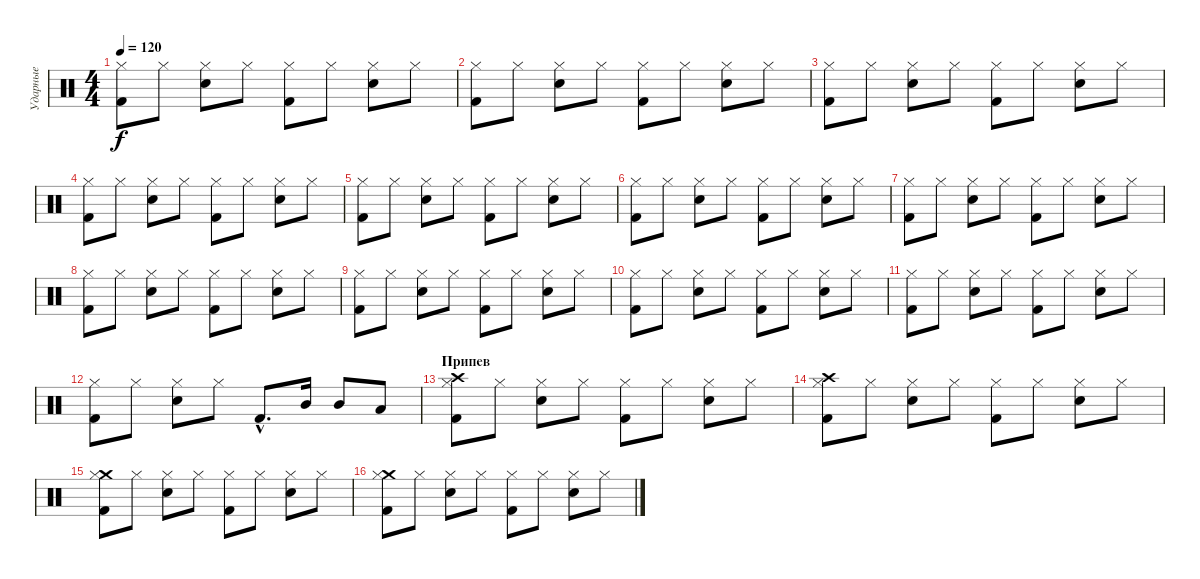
\track ("Ударные" "Ударные") {instrument percussion}
\staff {score}
\articulation defaults
\ts (4 4)
\tempo 120
\clef neutral
\ks c
("Hi-Hat (closed)" "Kick (hit) 2").8{dy f} "Hi-Hat (closed)".8 ("Hi-Hat (closed)" "Snare (hit) 2").8 "Hi-Hat (closed)".8 ("Hi-Hat (closed)" "Kick (hit) 2").8 "Hi-Hat (closed)".8 ("Hi-Hat (closed)" "Snare (hit) 2").8 "Hi-Hat (closed)".8 |
("Hi-Hat (closed)" "Kick (hit) 2").8 "Hi-Hat (closed)".8 ("Hi-Hat (closed)" "Snare (hit) 2").8 "Hi-Hat (closed)".8 ("Hi-Hat (closed)" "Kick (hit) 2").8 "Hi-Hat (closed)".8 ("Hi-Hat (closed)" "Snare (hit) 2").8 "Hi-Hat (closed)".8 |
("Hi-Hat (closed)" "Kick (hit) 2").8 "Hi-Hat (closed)".8 ("Hi-Hat (closed)" "Snare (hit) 2").8 "Hi-Hat (closed)".8 ("Hi-Hat (closed)" "Kick (hit) 2").8 "Hi-Hat (closed)".8 ("Hi-Hat (closed)" "Snare (hit) 2").8 "Hi-Hat (closed)".8 |
("Hi-Hat (closed)" "Kick (hit) 2").8 "Hi-Hat (closed)".8 ("Hi-Hat (closed)" "Snare (hit) 2").8 "Hi-Hat (closed)".8 ("Hi-Hat (closed)" "Kick (hit) 2").8 "Hi-Hat (closed)".8 ("Hi-Hat (closed)" "Snare (hit) 2").8 "Hi-Hat (closed)".8 |
("Hi-Hat (closed)" "Kick (hit) 2").8 "Hi-Hat (closed)".8 ("Hi-Hat (closed)" "Snare (hit) 2").8 "Hi-Hat (closed)".8 ("Hi-Hat (closed)" "Kick (hit) 2").8 "Hi-Hat (closed)".8 ("Hi-Hat (closed)" "Snare (hit) 2").8 "Hi-Hat (closed)".8 |
("Hi-Hat (closed)" "Kick (hit) 2").8 "Hi-Hat (closed)".8 ("Hi-Hat (closed)" "Snare (hit) 2").8 "Hi-Hat (closed)".8 ("Hi-Hat (closed)" "Kick (hit) 2").8 "Hi-Hat (closed)".8 ("Hi-Hat (closed)" "Snare (hit) 2").8 "Hi-Hat (closed)".8 |
("Hi-Hat (closed)" "Kick (hit) 2").8 "Hi-Hat (closed)".8 ("Hi-Hat (closed)" "Snare (hit) 2").8 "Hi-Hat (closed)".8 ("Hi-Hat (closed)" "Kick (hit) 2").8 "Hi-Hat (closed)".8 ("Hi-Hat (closed)" "Snare (hit) 2").8 "Hi-Hat (closed)".8 |
("Hi-Hat (closed)" "Kick (hit) 2").8 "Hi-Hat (closed)".8 ("Hi-Hat (closed)" "Snare (hit) 2").8 "Hi-Hat (closed)".8 ("Hi-Hat (closed)" "Kick (hit) 2").8 "Hi-Hat (closed)".8 ("Hi-Hat (closed)" "Snare (hit) 2").8 "Hi-Hat (closed)".8 |
("Hi-Hat (closed)" "Kick (hit) 2").8 "Hi-Hat (closed)".8 ("Hi-Hat (closed)" "Snare (hit) 2").8 "Hi-Hat (closed)".8 ("Hi-Hat (closed)" "Kick (hit) 2").8 "Hi-Hat (closed)".8 ("Hi-Hat (closed)" "Snare (hit) 2").8 "Hi-Hat (closed)".8 |
("Hi-Hat (closed)" "Kick (hit) 2").8 "Hi-Hat (closed)".8 ("Hi-Hat (closed)" "Snare (hit) 2").8 "Hi-Hat (closed)".8 ("Hi-Hat (closed)" "Kick (hit) 2").8 "Hi-Hat (closed)".8 ("Hi-Hat (closed)" "Snare (hit) 2").8 "Hi-Hat (closed)".8 |
("Hi-Hat (closed)" "Kick (hit) 2").8 "Hi-Hat (closed)".8 ("Hi-Hat (closed)" "Snare (hit) 2").8 "Hi-Hat (closed)".8 ("Hi-Hat (closed)" "Kick (hit) 2").8 "Hi-Hat (closed)".8 ("Hi-Hat (closed)" "Snare (hit) 2").8 "Hi-Hat (closed)".8 |
("Hi-Hat (closed)" "Kick (hit) 2").8 "Hi-Hat (closed)".8 ("Hi-Hat (closed)" "Snare (hit) 2").8 "Hi-Hat (closed)".8 "Kick (hit) 2"{hac}.8{d} "Mid Tom (hit)".16 "Mid Tom (hit)".8 "Low Tom (hit)".8 |
\section ("" "Припев")
("Crash high (hit)" "Hi-Hat (closed)" "Kick (hit) 2").8 "Hi-Hat (closed)".8 ("Hi-Hat (closed)" "Snare (hit) 2").8 "Hi-Hat (closed)".8 ("Hi-Hat (closed)" "Kick (hit) 2").8 "Hi-Hat (closed)".8 ("Hi-Hat (closed)" "Snare (hit) 2").8 "Hi-Hat (closed)".8 |
("Crash high (hit)" "Hi-Hat (closed)" "Kick (hit) 2").8 "Hi-Hat (closed)".8 ("Hi-Hat (closed)" "Snare (hit) 2").8 "Hi-Hat (closed)".8 ("Hi-Hat (closed)" "Kick (hit) 2").8 "Hi-Hat (closed)".8 ("Hi-Hat (closed)" "Snare (hit) 2").8 "Hi-Hat (closed)".8 |
("Crash medium (hit)" "Hi-Hat (closed)" "Kick (hit) 2").8 "Hi-Hat (closed)".8 ("Hi-Hat (closed)" "Snare (hit) 2").8 "Hi-Hat (closed)".8 ("Hi-Hat (closed)" "Kick (hit) 2").8 "Hi-Hat (closed)".8 ("Hi-Hat (closed)" "Snare (hit) 2").8 "Hi-Hat (closed)".8 |
("Crash medium (hit)" "Hi-Hat (closed)" "Kick (hit) 2").8 "Hi-Hat (closed)".8 ("Hi-Hat (closed)" "Snare (hit) 2").8 "Hi-Hat (closed)".8 ("Hi-Hat (closed)" "Kick (hit) 2").8 "Hi-Hat (closed)".8 ("Hi-Hat (closed)" "Snare (hit) 2").8 "Hi-Hat (closed)".8
